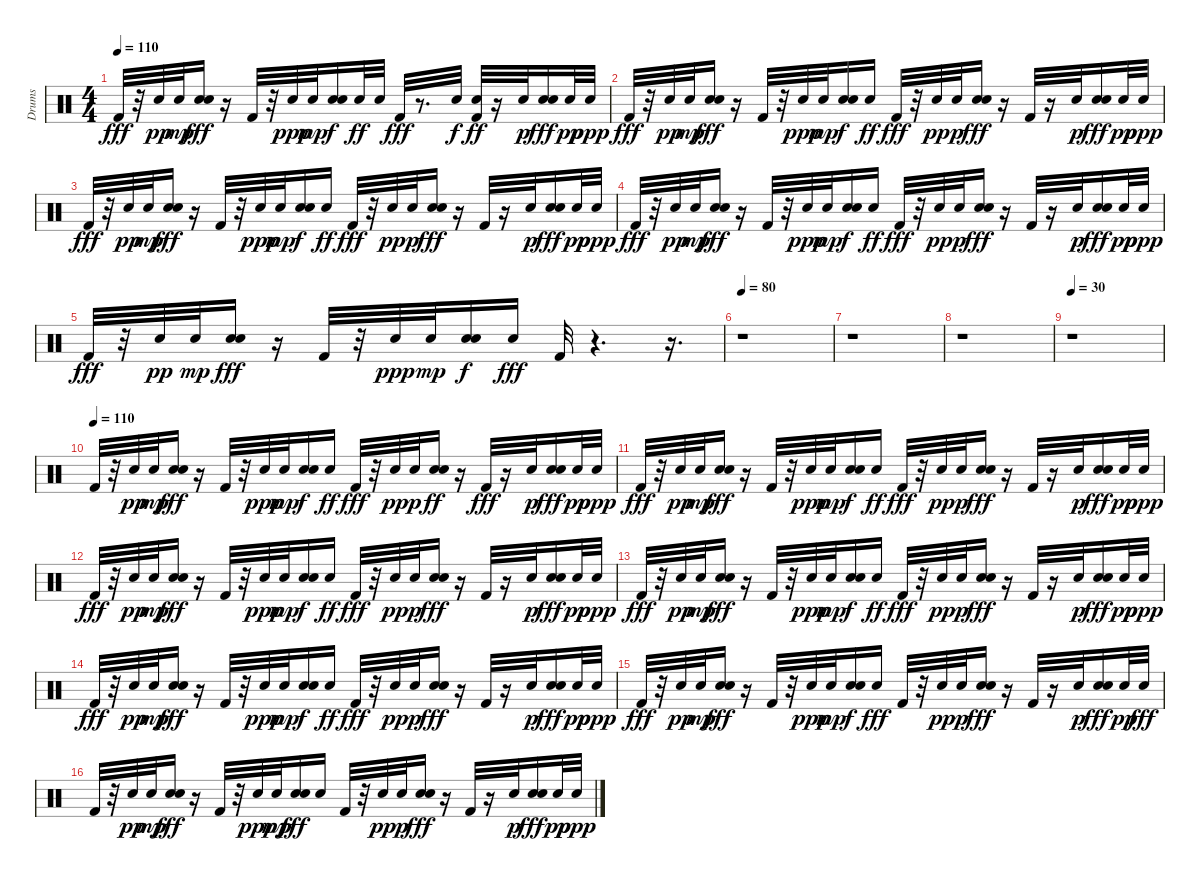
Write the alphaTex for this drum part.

\track ("Drums" "Drums") {instrument percussion}
\staff {score}
\articulation defaults
\ts (4 4)
\tempo 110
\clef neutral
\ks c "Kick (hit) 2".32{dy fff}
r.32 "Electric Snare (hit)".32{dy pp} "Electric Snare (hit)".32{dy mp} ("Snare (hit) 2" "Electric Snare (hit)").16{dy fff} r.16 "Kick (hit) 2".32 r.32 "Electric Snare (hit)".32{dy ppp} "Electric Snare (hit)".32{dy mp} ("Snare (hit) 2" "Electric Snare (hit)").16{dy f} "Electric Snare (hit)".32{dy ff} "Snare (hit) 2".32 "Kick (hit) 2".32{dy fff} r.8{d} "Snare (hit) 2".32{dy f} ("Kick (hit) 2" "Snare (hit) 2").32{dy ff} r.16 "Electric Snare (hit)".32{dy p} ("Snare (hit) 2" "Electric Snare (hit)").16{dy fff} "Electric Snare (hit)".32{dy pp} "Electric Snare (hit)".32{dy ppp} |
"Kick (hit) 2".32{dy fff} r.32 "Electric Snare (hit)".32{dy pp} "Electric Snare (hit)".32{dy mp} ("Snare (hit) 2" "Electric Snare (hit)").16{dy fff} r.16 "Kick (hit) 2".32 r.32 "Electric Snare (hit)".32{dy ppp} "Electric Snare (hit)".32{dy mp} ("Snare (hit) 2" "Electric Snare (hit)").16{dy f} "Electric Snare (hit)".16{dy ff} "Kick (hit) 2".32{dy fff} r.32 "Electric Snare (hit)".32{dy pp} "Electric Snare (hit)".32{dy p} ("Snare (hit) 2" "Electric Snare (hit)").16{dy fff} r.16 "Kick (hit) 2".32 r.16 "Electric Snare (hit)".32{dy p} ("Snare (hit) 2" "Electric Snare (hit)").16{dy fff} "Electric Snare (hit)".32{dy pp} "Electric Snare (hit)".32{dy ppp} |
"Kick (hit) 2".32{dy fff} r.32 "Electric Snare (hit)".32{dy pp} "Electric Snare (hit)".32{dy mp} ("Snare (hit) 2" "Electric Snare (hit)").16{dy fff} r.16 "Kick (hit) 2".32 r.32 "Electric Snare (hit)".32{dy ppp} "Electric Snare (hit)".32{dy mp} ("Snare (hit) 2" "Electric Snare (hit)").16{dy f} "Electric Snare (hit)".16{dy ff} "Kick (hit) 2".32{dy fff} r.32 "Electric Snare (hit)".32{dy pp} "Electric Snare (hit)".32{dy p} ("Snare (hit) 2" "Electric Snare (hit)").16{dy fff} r.16 "Kick (hit) 2".32 r.16 "Electric Snare (hit)".32{dy p} ("Snare (hit) 2" "Electric Snare (hit)").16{dy fff} "Electric Snare (hit)".32{dy pp} "Electric Snare (hit)".32{dy ppp} |
"Kick (hit) 2".32{dy fff} r.32 "Electric Snare (hit)".32{dy pp} "Electric Snare (hit)".32{dy mp} ("Snare (hit) 2" "Electric Snare (hit)").16{dy fff} r.16 "Kick (hit) 2".32 r.32 "Electric Snare (hit)".32{dy ppp} "Electric Snare (hit)".32{dy mp} ("Snare (hit) 2" "Electric Snare (hit)").16{dy f} "Electric Snare (hit)".16{dy ff} "Kick (hit) 2".32{dy fff} r.32 "Electric Snare (hit)".32{dy pp} "Electric Snare (hit)".32{dy p} ("Snare (hit) 2" "Electric Snare (hit)").16{dy fff} r.16 "Kick (hit) 2".32 r.16 "Electric Snare (hit)".32{dy p} ("Snare (hit) 2" "Electric Snare (hit)").16{dy fff} "Electric Snare (hit)".32{dy pp} "Electric Snare (hit)".32{dy ppp} |
"Kick (hit) 2".32{dy fff} r.32 "Electric Snare (hit)".32{dy pp} "Electric Snare (hit)".32{dy mp} ("Snare (hit) 2" "Electric Snare (hit)").16{dy fff} r.16 "Kick (hit) 2".32 r.32 "Electric Snare (hit)".32{dy ppp} "Electric Snare (hit)".32{dy mp} ("Snare (hit) 2" "Electric Snare (hit)").16{dy f} "Electric Snare (hit)".16{dy fff} "Kick (hit) 2".32 r.4{d} r.16{d} |
\tempo 80
r.1 |
r.1 |
r.1 |
\tempo 30
r.1 |
\tempo (110)
"Kick (hit) 2".32 r.32 "Electric Snare (hit)".32{dy pp} "Electric Snare (hit)".32{dy mp} ("Snare (hit) 2" "Electric Snare (hit)").16{dy fff} r.16 "Kick (hit) 2".32 r.32 "Electric Snare (hit)".32{dy ppp} "Electric Snare (hit)".32{dy mp} ("Snare (hit) 2" "Electric Snare (hit)").16{dy f} "Electric Snare (hit)".16{dy ff} "Kick (hit) 2".32{dy fff} r.32 "Electric Snare (hit)".32{dy pp} "Electric Snare (hit)".32{dy p} ("Snare (hit) 2" "Electric Snare (hit)").16{dy ff} r.16 "Kick (hit) 2".32{dy fff} r.16 "Electric Snare (hit)".32{dy p} ("Snare (hit) 2" "Electric Snare (hit)").16{dy fff} "Electric Snare (hit)".32{dy pp} "Electric Snare (hit)".32{dy ppp} |
"Kick (hit) 2".32{dy fff} r.32 "Electric Snare (hit)".32{dy pp} "Electric Snare (hit)".32{dy mp} ("Snare (hit) 2" "Electric Snare (hit)").16{dy fff} r.16 "Kick (hit) 2".32 r.32 "Electric Snare (hit)".32{dy ppp} "Electric Snare (hit)".32{dy mp} ("Snare (hit) 2" "Electric Snare (hit)").16{dy f} "Electric Snare (hit)".16{dy ff} "Kick (hit) 2".32{dy fff} r.32 "Electric Snare (hit)".32{dy pp} "Electric Snare (hit)".32{dy p} ("Snare (hit) 2" "Electric Snare (hit)").16{dy fff} r.16 "Kick (hit) 2".32 r.16 "Electric Snare (hit)".32{dy p} ("Snare (hit) 2" "Electric Snare (hit)").16{dy fff} "Electric Snare (hit)".32{dy pp} "Electric Snare (hit)".32{dy ppp} |
"Kick (hit) 2".32{dy fff} r.32 "Electric Snare (hit)".32{dy pp} "Electric Snare (hit)".32{dy mp} ("Snare (hit) 2" "Electric Snare (hit)").16{dy fff} r.16 "Kick (hit) 2".32 r.32 "Electric Snare (hit)".32{dy ppp} "Electric Snare (hit)".32{dy mp} ("Snare (hit) 2" "Electric Snare (hit)").16{dy f} "Electric Snare (hit)".16{dy ff} "Kick (hit) 2".32{dy fff} r.32 "Electric Snare (hit)".32{dy pp} "Electric Snare (hit)".32{dy p} ("Snare (hit) 2" "Electric Snare (hit)").16{dy fff} r.16 "Kick (hit) 2".32 r.16 "Electric Snare (hit)".32{dy p} ("Snare (hit) 2" "Electric Snare (hit)").16{dy fff} "Electric Snare (hit)".32{dy pp} "Electric Snare (hit)".32{dy ppp} |
"Kick (hit) 2".32{dy fff} r.32 "Electric Snare (hit)".32{dy pp} "Electric Snare (hit)".32{dy mp} ("Snare (hit) 2" "Electric Snare (hit)").16{dy fff} r.16 "Kick (hit) 2".32 r.32 "Electric Snare (hit)".32{dy ppp} "Electric Snare (hit)".32{dy mp} ("Snare (hit) 2" "Electric Snare (hit)").16{dy f} "Electric Snare (hit)".16{dy ff} "Kick (hit) 2".32{dy fff} r.32 "Electric Snare (hit)".32{dy pp} "Electric Snare (hit)".32{dy p} ("Snare (hit) 2" "Electric Snare (hit)").16{dy fff} r.16 "Kick (hit) 2".32 r.16 "Electric Snare (hit)".32{dy p} ("Snare (hit) 2" "Electric Snare (hit)").16{dy fff} "Electric Snare (hit)".32{dy pp} "Electric Snare (hit)".32{dy ppp} |
"Kick (hit) 2".32{dy fff} r.32 "Electric Snare (hit)".32{dy pp} "Electric Snare (hit)".32{dy mp} ("Snare (hit) 2" "Electric Snare (hit)").16{dy fff} r.16 "Kick (hit) 2".32 r.32 "Electric Snare (hit)".32{dy ppp} "Electric Snare (hit)".32{dy mp} ("Snare (hit) 2" "Electric Snare (hit)").16{dy f} "Electric Snare (hit)".16{dy ff} "Kick (hit) 2".32{dy fff} r.32 "Electric Snare (hit)".32{dy pp} "Electric Snare (hit)".32{dy p} ("Snare (hit) 2" "Electric Snare (hit)").16{dy fff} r.16 "Kick (hit) 2".32 r.16 "Electric Snare (hit)".32{dy p} ("Snare (hit) 2" "Electric Snare (hit)").16{dy fff} "Electric Snare (hit)".32{dy pp} "Electric Snare (hit)".32{dy ppp} |
"Kick (hit) 2".32{dy fff} r.32 "Electric Snare (hit)".32{dy pp} "Electric Snare (hit)".32{dy mp} ("Snare (hit) 2" "Electric Snare (hit)").16{dy fff} r.16 "Kick (hit) 2".32 r.32 "Electric Snare (hit)".32{dy ppp} "Electric Snare (hit)".32{dy mp} ("Snare (hit) 2" "Electric Snare (hit)").16{dy f} "Electric Snare (hit)".16{dy fff} "Kick (hit) 2".32 r.32 "Electric Snare (hit)".32{dy pp} "Electric Snare (hit)".32{dy p} ("Snare (hit) 2" "Electric Snare (hit)").16{dy fff} r.16 "Kick (hit) 2".32 r.16 "Electric Snare (hit)".32{dy p} ("Snare (hit) 2" "Electric Snare (hit)").16{dy fff} "Electric Snare (hit)".32{dy pp} "Electric Snare (hit)".32{dy fff} |
"Kick (hit) 2".32 r.32 "Electric Snare (hit)".32{dy pp} "Electric Snare (hit)".32{dy mp} ("Snare (hit) 2" "Electric Snare (hit)").16{dy fff} r.16 "Kick (hit) 2".32 r.32 "Electric Snare (hit)".32{dy ppp} "Electric Snare (hit)".32{dy mp} ("Snare (hit) 2" "Electric Snare (hit)").16{dy fff} "Electric Snare (hit)".16 "Kick (hit) 2".32 r.32 "Electric Snare (hit)".32{dy pp} "Electric Snare (hit)".32{dy p} ("Snare (hit) 2" "Electric Snare (hit)").16{dy fff} r.16 "Kick (hit) 2".32 r.16 "Electric Snare (hit)".32{dy p} ("Snare (hit) 2" "Electric Snare (hit)").16{dy fff} "Electric Snare (hit)".32{dy pp} "Electric Snare (hit)".32{dy ppp}
